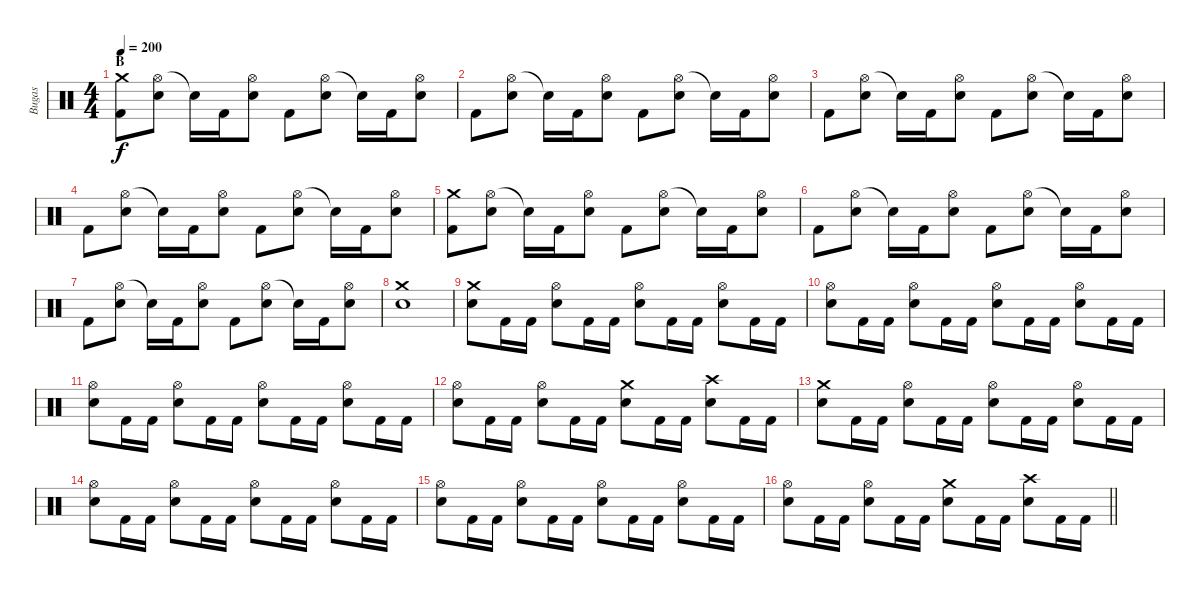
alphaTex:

\track ("Bugas" "Bugas") {instrument percussion}
\staff {score}
\articulation defaults
\ts (4 4)
\section ("" "B")
\tempo 200
\clef neutral
\ks c
("Crash medium (hit)" "Kick (hit) 2").8{dy f} ("Hi-Hat (open)" "Electric Snare (hit)").8 "Snare (hit)"{t}.16 "Kick (hit) 2".16 ("Hi-Hat (open)" "Electric Snare (hit)").8 "Kick (hit) 2".8 ("Hi-Hat (open)" "Electric Snare (hit)").8 "Snare (hit)"{t}.16 "Kick (hit) 2".16 ("Hi-Hat (open)" "Electric Snare (hit)").8 |
"Kick (hit) 2".8 ("Hi-Hat (open)" "Electric Snare (hit)").8 "Snare (hit)"{t}.16 "Kick (hit) 2".16 ("Hi-Hat (open)" "Electric Snare (hit)").8 "Kick (hit) 2".8 ("Hi-Hat (open)" "Electric Snare (hit)").8 "Snare (hit)"{t}.16 "Kick (hit) 2".16 ("Hi-Hat (open)" "Electric Snare (hit)").8 |
"Kick (hit) 2".8 ("Hi-Hat (open)" "Electric Snare (hit)").8 "Snare (hit)"{t}.16 "Kick (hit) 2".16 ("Hi-Hat (open)" "Electric Snare (hit)").8 "Kick (hit) 2".8 ("Hi-Hat (open)" "Electric Snare (hit)").8 "Snare (hit)"{t}.16 "Kick (hit) 2".16 ("Hi-Hat (open)" "Electric Snare (hit)").8 |
"Kick (hit) 2".8 ("Hi-Hat (open)" "Electric Snare (hit)").8 "Snare (hit)"{t}.16 "Kick (hit) 2".16 ("Hi-Hat (open)" "Electric Snare (hit)").8 "Kick (hit) 2".8 ("Hi-Hat (open)" "Electric Snare (hit)").8 "Snare (hit)"{t}.16 "Kick (hit) 2".16 ("Hi-Hat (open)" "Electric Snare (hit)").8 |
("Crash medium (hit)" "Kick (hit) 2").8 ("Hi-Hat (open)" "Electric Snare (hit)").8 "Snare (hit)"{t}.16 "Kick (hit) 2".16 ("Hi-Hat (open)" "Electric Snare (hit)").8 "Kick (hit) 2".8 ("Hi-Hat (open)" "Electric Snare (hit)").8 "Snare (hit)"{t}.16 "Kick (hit) 2".16 ("Hi-Hat (open)" "Electric Snare (hit)").8 |
"Kick (hit) 2".8 ("Hi-Hat (open)" "Electric Snare (hit)").8 "Snare (hit)"{t}.16 "Kick (hit) 2".16 ("Hi-Hat (open)" "Electric Snare (hit)").8 "Kick (hit) 2".8 ("Hi-Hat (open)" "Electric Snare (hit)").8 "Snare (hit)"{t}.16 "Kick (hit) 2".16 ("Hi-Hat (open)" "Electric Snare (hit)").8 |
"Kick (hit) 2".8 ("Hi-Hat (open)" "Electric Snare (hit)").8 "Snare (hit)"{t}.16 "Kick (hit) 2".16 ("Hi-Hat (open)" "Electric Snare (hit)").8 "Kick (hit) 2".8 ("Hi-Hat (open)" "Electric Snare (hit)").8 "Snare (hit)"{t}.16 "Kick (hit) 2".16 ("Hi-Hat (open)" "Electric Snare (hit)").8 |
("Crash medium (hit)" "Electric Snare (hit)").1 |
("Crash medium (hit)" "Electric Snare (hit)").8 "Kick (hit) 2".16 "Kick (hit) 2".16 ("Hi-Hat (open)" "Electric Snare (hit)").8 "Kick (hit) 2".16 "Kick (hit) 2".16 ("Hi-Hat (open)" "Electric Snare (hit)").8 "Kick (hit) 2".16 "Kick (hit) 2".16 ("Hi-Hat (open)" "Electric Snare (hit)").8 "Kick (hit) 2".16 "Kick (hit) 2".16 |
("Hi-Hat (open)" "Electric Snare (hit)").8 "Kick (hit) 2".16 "Kick (hit) 2".16 ("Hi-Hat (open)" "Electric Snare (hit)").8 "Kick (hit) 2".16 "Kick (hit) 2".16 ("Hi-Hat (open)" "Electric Snare (hit)").8 "Kick (hit) 2".16 "Kick (hit) 2".16 ("Hi-Hat (open)" "Electric Snare (hit)").8 "Kick (hit) 2".16 "Kick (hit) 2".16 |
("Hi-Hat (open)" "Electric Snare (hit)").8 "Kick (hit) 2".16 "Kick (hit) 2".16 ("Hi-Hat (open)" "Electric Snare (hit)").8 "Kick (hit) 2".16 "Kick (hit) 2".16 ("Hi-Hat (open)" "Electric Snare (hit)").8 "Kick (hit) 2".16 "Kick (hit) 2".16 ("Hi-Hat (open)" "Electric Snare (hit)").8 "Kick (hit) 2".16 "Kick (hit) 2".16 |
("Hi-Hat (open)" "Electric Snare (hit)").8 "Kick (hit) 2".16 "Kick (hit) 2".16 ("Hi-Hat (open)" "Electric Snare (hit)").8 "Kick (hit) 2".16 "Kick (hit) 2".16 ("Crash medium (hit)" "Electric Snare (hit)").8 "Kick (hit) 2".16 "Kick (hit) 2".16 ("Crash high (hit)" "Electric Snare (hit)").8 "Kick (hit) 2".16 "Kick (hit) 2".16 |
("Crash medium (hit)" "Electric Snare (hit)").8 "Kick (hit) 2".16 "Kick (hit) 2".16 ("Hi-Hat (open)" "Electric Snare (hit)").8 "Kick (hit) 2".16 "Kick (hit) 2".16 ("Hi-Hat (open)" "Electric Snare (hit)").8 "Kick (hit) 2".16 "Kick (hit) 2".16 ("Hi-Hat (open)" "Electric Snare (hit)").8 "Kick (hit) 2".16 "Kick (hit) 2".16 |
("Hi-Hat (open)" "Electric Snare (hit)").8 "Kick (hit) 2".16 "Kick (hit) 2".16 ("Hi-Hat (open)" "Electric Snare (hit)").8 "Kick (hit) 2".16 "Kick (hit) 2".16 ("Hi-Hat (open)" "Electric Snare (hit)").8 "Kick (hit) 2".16 "Kick (hit) 2".16 ("Hi-Hat (open)" "Electric Snare (hit)").8 "Kick (hit) 2".16 "Kick (hit) 2".16 |
("Hi-Hat (open)" "Electric Snare (hit)").8 "Kick (hit) 2".16 "Kick (hit) 2".16 ("Hi-Hat (open)" "Electric Snare (hit)").8 "Kick (hit) 2".16 "Kick (hit) 2".16 ("Hi-Hat (open)" "Electric Snare (hit)").8 "Kick (hit) 2".16 "Kick (hit) 2".16 ("Hi-Hat (open)" "Electric Snare (hit)").8 "Kick (hit) 2".16 "Kick (hit) 2".16 |
\barLineRight lightlight
("Hi-Hat (open)" "Electric Snare (hit)").8 "Kick (hit) 2".16 "Kick (hit) 2".16 ("Hi-Hat (open)" "Electric Snare (hit)").8 "Kick (hit) 2".16 "Kick (hit) 2".16 ("Crash medium (hit)" "Electric Snare (hit)").8 "Kick (hit) 2".16 "Kick (hit) 2".16 ("Crash high (hit)" "Electric Snare (hit)").8 "Kick (hit) 2".16 "Kick (hit) 2".16
